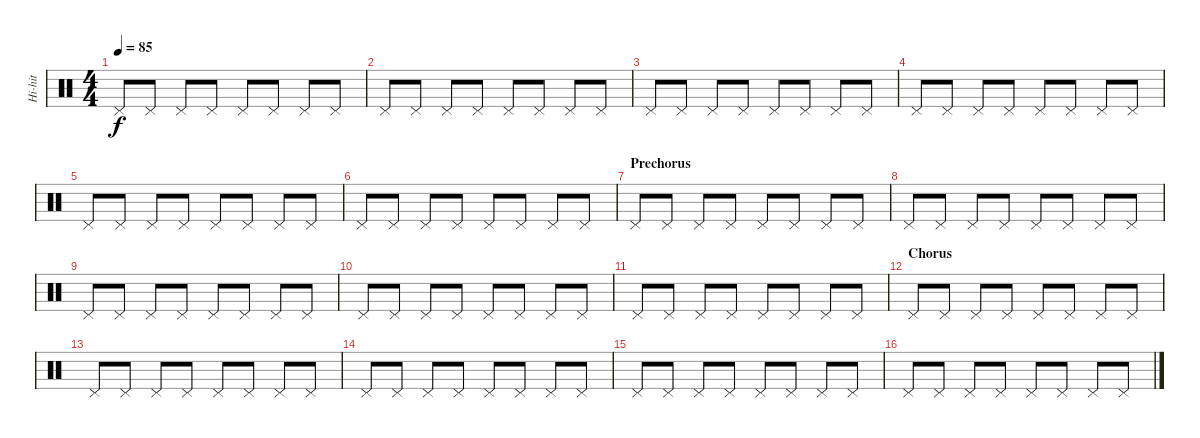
\track ("Hi-hit" "Hi-hit") {instrument percussion}
\staff {score}
\articulation defaults
\ts (4 4)
\tempo 85
\clef neutral
\ks c "Pedal Hi-Hat (hit)".8{dy f} "Pedal Hi-Hat (hit)".8 "Pedal Hi-Hat (hit)".8 "Pedal Hi-Hat (hit)".8 "Pedal Hi-Hat (hit)".8 "Pedal Hi-Hat (hit)".8 "Pedal Hi-Hat (hit)".8 "Pedal Hi-Hat (hit)".8
|
"Pedal Hi-Hat (hit)".8 "Pedal Hi-Hat (hit)".8 "Pedal Hi-Hat (hit)".8 "Pedal Hi-Hat (hit)".8 "Pedal Hi-Hat (hit)".8 "Pedal Hi-Hat (hit)".8 "Pedal Hi-Hat (hit)".8 "Pedal Hi-Hat (hit)".8 |
"Pedal Hi-Hat (hit)".8 "Pedal Hi-Hat (hit)".8 "Pedal Hi-Hat (hit)".8 "Pedal Hi-Hat (hit)".8 "Pedal Hi-Hat (hit)".8 "Pedal Hi-Hat (hit)".8 "Pedal Hi-Hat (hit)".8 "Pedal Hi-Hat (hit)".8 |
"Pedal Hi-Hat (hit)".8 "Pedal Hi-Hat (hit)".8 "Pedal Hi-Hat (hit)".8 "Pedal Hi-Hat (hit)".8 "Pedal Hi-Hat (hit)".8 "Pedal Hi-Hat (hit)".8 "Pedal Hi-Hat (hit)".8 "Pedal Hi-Hat (hit)".8 |
"Pedal Hi-Hat (hit)".8 "Pedal Hi-Hat (hit)".8 "Pedal Hi-Hat (hit)".8 "Pedal Hi-Hat (hit)".8 "Pedal Hi-Hat (hit)".8 "Pedal Hi-Hat (hit)".8 "Pedal Hi-Hat (hit)".8 "Pedal Hi-Hat (hit)".8 |
"Pedal Hi-Hat (hit)".8 "Pedal Hi-Hat (hit)".8 "Pedal Hi-Hat (hit)".8 "Pedal Hi-Hat (hit)".8 "Pedal Hi-Hat (hit)".8 "Pedal Hi-Hat (hit)".8 "Pedal Hi-Hat (hit)".8 "Pedal Hi-Hat (hit)".8 |
\section ("" "Prechorus")
"Pedal Hi-Hat (hit)".8 "Pedal Hi-Hat (hit)".8 "Pedal Hi-Hat (hit)".8 "Pedal Hi-Hat (hit)".8 "Pedal Hi-Hat (hit)".8 "Pedal Hi-Hat (hit)".8 "Pedal Hi-Hat (hit)".8 "Pedal Hi-Hat (hit)".8 |
"Pedal Hi-Hat (hit)".8 "Pedal Hi-Hat (hit)".8 "Pedal Hi-Hat (hit)".8 "Pedal Hi-Hat (hit)".8 "Pedal Hi-Hat (hit)".8 "Pedal Hi-Hat (hit)".8 "Pedal Hi-Hat (hit)".8 "Pedal Hi-Hat (hit)".8 |
"Pedal Hi-Hat (hit)".8 "Pedal Hi-Hat (hit)".8 "Pedal Hi-Hat (hit)".8 "Pedal Hi-Hat (hit)".8 "Pedal Hi-Hat (hit)".8 "Pedal Hi-Hat (hit)".8 "Pedal Hi-Hat (hit)".8 "Pedal Hi-Hat (hit)".8 |
"Pedal Hi-Hat (hit)".8 "Pedal Hi-Hat (hit)".8 "Pedal Hi-Hat (hit)".8 "Pedal Hi-Hat (hit)".8 "Pedal Hi-Hat (hit)".8 "Pedal Hi-Hat (hit)".8 "Pedal Hi-Hat (hit)".8 "Pedal Hi-Hat (hit)".8 |
"Pedal Hi-Hat (hit)".8 "Pedal Hi-Hat (hit)".8 "Pedal Hi-Hat (hit)".8 "Pedal Hi-Hat (hit)".8 "Pedal Hi-Hat (hit)".8 "Pedal Hi-Hat (hit)".8 "Pedal Hi-Hat (hit)".8 "Pedal Hi-Hat (hit)".8 |
\section ("" "Chorus")
"Pedal Hi-Hat (hit)".8 "Pedal Hi-Hat (hit)".8 "Pedal Hi-Hat (hit)".8 "Pedal Hi-Hat (hit)".8 "Pedal Hi-Hat (hit)".8 "Pedal Hi-Hat (hit)".8 "Pedal Hi-Hat (hit)".8 "Pedal Hi-Hat (hit)".8 |
"Pedal Hi-Hat (hit)".8 "Pedal Hi-Hat (hit)".8 "Pedal Hi-Hat (hit)".8 "Pedal Hi-Hat (hit)".8 "Pedal Hi-Hat (hit)".8 "Pedal Hi-Hat (hit)".8 "Pedal Hi-Hat (hit)".8 "Pedal Hi-Hat (hit)".8 |
"Pedal Hi-Hat (hit)".8 "Pedal Hi-Hat (hit)".8 "Pedal Hi-Hat (hit)".8 "Pedal Hi-Hat (hit)".8 "Pedal Hi-Hat (hit)".8 "Pedal Hi-Hat (hit)".8 "Pedal Hi-Hat (hit)".8 "Pedal Hi-Hat (hit)".8 |
"Pedal Hi-Hat (hit)".8 "Pedal Hi-Hat (hit)".8 "Pedal Hi-Hat (hit)".8 "Pedal Hi-Hat (hit)".8 "Pedal Hi-Hat (hit)".8 "Pedal Hi-Hat (hit)".8 "Pedal Hi-Hat (hit)".8 "Pedal Hi-Hat (hit)".8 |
"Pedal Hi-Hat (hit)".8 "Pedal Hi-Hat (hit)".8 "Pedal Hi-Hat (hit)".8 "Pedal Hi-Hat (hit)".8 "Pedal Hi-Hat (hit)".8 "Pedal Hi-Hat (hit)".8 "Pedal Hi-Hat (hit)".8 "Pedal Hi-Hat (hit)".8
